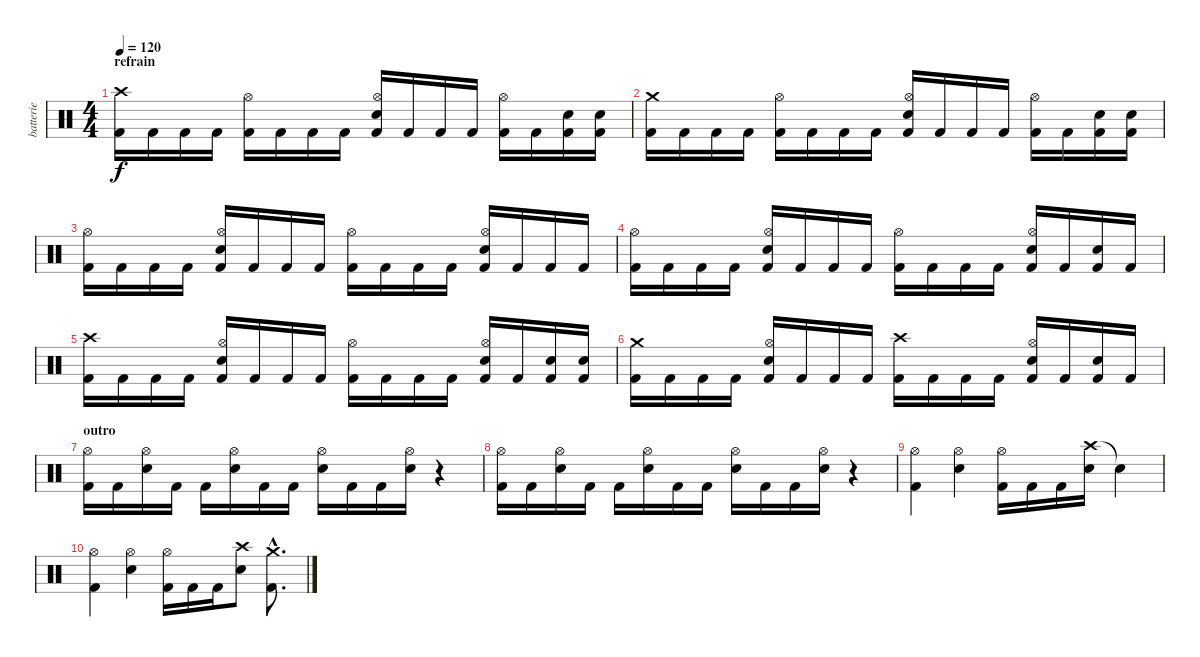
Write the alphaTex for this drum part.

\track ("batterie" "batterie") {instrument percussion}
\staff {score}
\articulation defaults
\ts (4 4)
\section ("" "refrain")
\tempo 120
\clef neutral
\ks c
("Crash high (hit)" "Kick (hit) 2").16{dy f} "Kick (hit) 2".16 "Kick (hit) 2".16 "Kick (hit) 2".16 ("Kick (hit) 2" "Hi-Hat (open)").16 "Kick (hit) 2".16 "Kick (hit) 2".16 "Kick (hit) 2".16 ("Snare (hit) 2" "Kick (hit) 2" "Hi-Hat (open)").16 "Kick (hit) 2".16 "Kick (hit) 2".16 "Kick (hit) 2".16 ("Kick (hit) 2" "Hi-Hat (open)").16 "Kick (hit) 2".16 ("Snare (hit) 2" "Kick (hit) 2").16 ("Snare (hit) 2" "Kick (hit) 2").16 |
("Crash medium (hit)" "Kick (hit) 2").16 "Kick (hit) 2".16 "Kick (hit) 2".16 "Kick (hit) 2".16 ("Kick (hit) 2" "Hi-Hat (open)").16 "Kick (hit) 2".16 "Kick (hit) 2".16 "Kick (hit) 2".16 ("Snare (hit) 2" "Kick (hit) 2" "Hi-Hat (open)").16 "Kick (hit) 2".16 "Kick (hit) 2".16 "Kick (hit) 2".16 ("Kick (hit) 2" "Hi-Hat (open)").16 "Kick (hit) 2".16 ("Snare (hit) 2" "Kick (hit) 2").16 ("Snare (hit) 2" "Kick (hit) 2").16 |
("Kick (hit) 2" "Hi-Hat (open)").16 "Kick (hit) 2".16 "Kick (hit) 2".16 "Kick (hit) 2".16 ("Snare (hit) 2" "Kick (hit) 2" "Hi-Hat (open)").16 "Kick (hit) 2".16 "Kick (hit) 2".16 "Kick (hit) 2".16 ("Kick (hit) 2" "Hi-Hat (open)").16 "Kick (hit) 2".16 "Kick (hit) 2".16 "Kick (hit) 2".16 ("Snare (hit) 2" "Kick (hit) 2" "Hi-Hat (open)").16 "Kick (hit) 2".16 "Kick (hit) 2".16 "Kick (hit) 2".16 |
("Kick (hit) 2" "Hi-Hat (open)").16 "Kick (hit) 2".16 "Kick (hit) 2".16 "Kick (hit) 2".16 ("Snare (hit) 2" "Kick (hit) 2" "Hi-Hat (open)").16 "Kick (hit) 2".16 "Kick (hit) 2".16 "Kick (hit) 2".16 ("Kick (hit) 2" "Hi-Hat (open)").16 "Kick (hit) 2".16 "Kick (hit) 2".16 "Kick (hit) 2".16 ("Snare (hit) 2" "Kick (hit) 2" "Hi-Hat (open)").16 "Kick (hit) 2".16 ("Snare (hit) 2" "Kick (hit) 2").16 "Kick (hit) 2".16 |
("Crash high (hit)" "Kick (hit) 2").16 "Kick (hit) 2".16 "Kick (hit) 2".16 "Kick (hit) 2".16 ("Snare (hit) 2" "Kick (hit) 2" "Hi-Hat (open)").16 "Kick (hit) 2".16 "Kick (hit) 2".16 "Kick (hit) 2".16 ("Kick (hit) 2" "Hi-Hat (open)").16 "Kick (hit) 2".16 "Kick (hit) 2".16 "Kick (hit) 2".16 ("Snare (hit) 2" "Kick (hit) 2" "Hi-Hat (open)").16 "Kick (hit) 2".16 ("Snare (hit) 2" "Kick (hit) 2").16 ("Snare (hit) 2" "Kick (hit) 2").16 |
("Crash medium (hit)" "Kick (hit) 2").16 "Kick (hit) 2".16 "Kick (hit) 2".16 "Kick (hit) 2".16 ("Snare (hit) 2" "Kick (hit) 2" "Hi-Hat (open)").16 "Kick (hit) 2".16 "Kick (hit) 2".16 "Kick (hit) 2".16 ("Crash high (hit)" "Kick (hit) 2").16 "Kick (hit) 2".16 "Kick (hit) 2".16 "Kick (hit) 2".16 ("Snare (hit) 2" "Kick (hit) 2" "Hi-Hat (open)").16 "Kick (hit) 2".16 ("Snare (hit) 2" "Kick (hit) 2").16 "Kick (hit) 2".16 |
\section ("" "outro")
("Kick (hit) 2" "Hi-Hat (open)").16 "Kick (hit) 2".16 ("Snare (hit) 2" "Hi-Hat (open)").16 "Kick (hit) 2".16 "Kick (hit) 2".16 ("Snare (hit) 2" "Hi-Hat (open)").16 "Kick (hit) 2".16 "Kick (hit) 2".16 ("Snare (hit) 2" "Hi-Hat (open)").16 "Kick (hit) 2".16 "Kick (hit) 2".16 ("Snare (hit) 2" "Hi-Hat (open)").16 r.4 |
("Kick (hit) 2" "Hi-Hat (open)").16 "Kick (hit) 2".16 ("Snare (hit) 2" "Hi-Hat (open)").16 "Kick (hit) 2".16 "Kick (hit) 2".16 ("Snare (hit) 2" "Hi-Hat (open)").16 "Kick (hit) 2".16 "Kick (hit) 2".16 ("Snare (hit) 2" "Hi-Hat (open)").16 "Kick (hit) 2".16 "Kick (hit) 2".16 ("Snare (hit) 2" "Hi-Hat (open)").16 r.4 |
("Kick (hit) 2" "Hi-Hat (open)").4 ("Snare (hit) 2" "Hi-Hat (open)").4 ("Kick (hit) 2" "Hi-Hat (open)").16 "Kick (hit) 2".16 "Kick (hit) 2".16 ("Crash high (hit)" "Snare (hit) 2").16 "Snare (hit)"{t}.4 |
("Kick (hit) 2" "Hi-Hat (open)").4 ("Snare (hit) 2" "Hi-Hat (open)").4 ("Kick (hit) 2" "Hi-Hat (open)").16 "Kick (hit) 2".16 "Kick (hit) 2".16 ("Crash high (hit)" "Snare (hit) 2").8 ("Crash medium (hit)"{hac} "Kick (hit) 2"{hac}).8{d}
